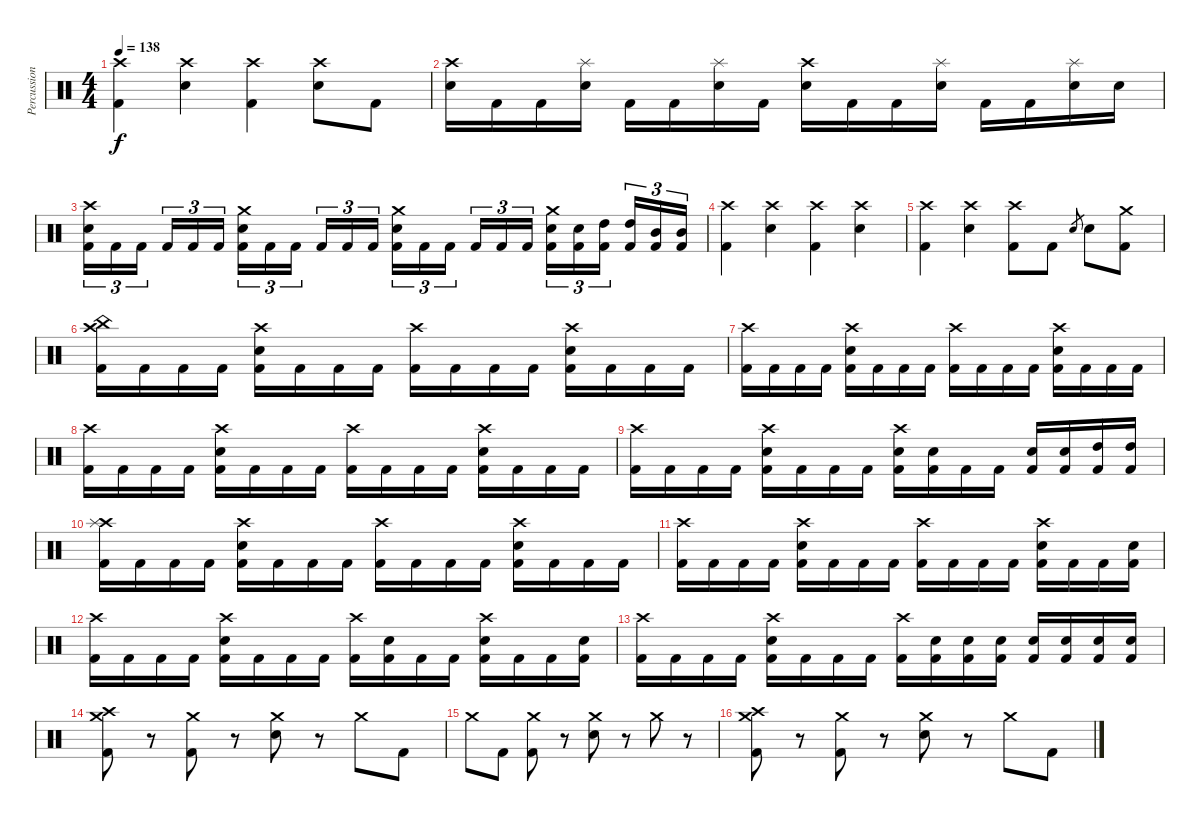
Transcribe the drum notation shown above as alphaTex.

\track ("Percussion" "Percussion") {instrument percussion}
\staff {score}
\articulation defaults
\ts (4 4)
\tempo 138
\clef neutral
\ks c
("Crash high (hit)" "Kick (hit) 2").4{dy f} ("Crash high (hit)" "Electric Snare (hit)").4 ("Crash high (hit)" "Kick (hit) 2").4 ("Crash high (hit)" "Electric Snare (hit)").8 "Kick (hit) 2".8 |
("Crash high (hit)" "Electric Snare (hit)").16 "Kick (hit) 2".16 "Kick (hit) 2".16 ("Splash (hit)" "Electric Snare (hit)").16 "Kick (hit) 2".16 "Kick (hit) 2".16 ("Splash (hit)" "Electric Snare (hit)").16 "Kick (hit) 2".16 ("Crash high (hit)" "Electric Snare (hit)").16 "Kick (hit) 2".16 "Kick (hit) 2".16 ("Splash (hit)" "Electric Snare (hit)").16 "Kick (hit) 2".16 "Kick (hit) 2".16 ("Splash (hit)" "Electric Snare (hit)").16 "Electric Snare (hit)".16 |
("Crash high (hit)" "Electric Snare (hit)" "Kick (hit) 2").16{tu (3 2)} "Kick (hit) 2".16{tu (3 2)} "Kick (hit) 2".16{tu (3 2)} "Kick (hit) 2".16{tu (3 2)} "Kick (hit) 2".16{tu (3 2)} "Kick (hit) 2".16{tu (3 2)} ("Crash medium (hit)" "Electric Snare (hit)" "Kick (hit) 2").16{tu (3 2)} "Kick (hit) 2".16{tu (3 2)} "Kick (hit) 2".16{tu (3 2)} "Kick (hit) 2".16{tu (3 2)} "Kick (hit) 2".16{tu (3 2)} "Kick (hit) 2".16{tu (3 2)} ("Crash medium (hit)" "Electric Snare (hit)" "Kick (hit) 2").16{tu (3 2)} "Kick (hit) 2".16{tu (3 2)} "Kick (hit) 2".16{tu (3 2)} "Kick (hit) 2".16{tu (3 2)} "Kick (hit) 2".16{tu (3 2)} "Kick (hit) 2".16{tu (3 2)} ("Crash medium (hit)" "Electric Snare (hit)" "Kick (hit) 2").16{tu (3 2)} ("Electric Snare (hit)" "Kick (hit) 2").16{tu (3 2)} ("High Tom (hit)" "Kick (hit) 2").16{tu (3 2)} ("High Tom (hit)" "Kick (hit) 2").16{tu (3 2)} ("Mid Tom (hit)" "Kick (hit) 2").16{tu (3 2)} ("Mid Tom (hit)" "Kick (hit) 2").16{tu (3 2)} |
("Crash high (hit)" "Kick (hit) 2").4 ("Crash high (hit)" "Electric Snare (hit)").4 ("Crash high (hit)" "Kick (hit) 2").4 ("Crash high (hit)" "Electric Snare (hit)").4 |
("Crash high (hit)" "Kick (hit) 2").4 ("Crash high (hit)" "Electric Snare (hit)").4 ("Crash high (hit)" "Kick (hit) 2").8 "Kick (hit) 2".8 "Electric Snare (hit)".8{gr} "Electric Snare (hit)".8 ("Crash medium (hit)" "Kick (hit) 2").8 |
("Crash high (hit)" "China (hit)" "Kick (hit) 2").16 "Kick (hit) 2".16 "Kick (hit) 2".16 "Kick (hit) 2".16 ("Crash high (hit)" "Electric Snare (hit)" "Kick (hit) 2").16 "Kick (hit) 2".16 "Kick (hit) 2".16 "Kick (hit) 2".16 ("Crash high (hit)" "Kick (hit) 2").16 "Kick (hit) 2".16 "Kick (hit) 2".16 "Kick (hit) 2".16 ("Crash high (hit)" "Electric Snare (hit)" "Kick (hit) 2").16 "Kick (hit) 2".16 "Kick (hit) 2".16 "Kick (hit) 2".16 |
("Crash high (hit)" "Kick (hit) 2").16 "Kick (hit) 2".16 "Kick (hit) 2".16 "Kick (hit) 2".16 ("Crash high (hit)" "Electric Snare (hit)" "Kick (hit) 2").16 "Kick (hit) 2".16 "Kick (hit) 2".16 "Kick (hit) 2".16 ("Crash high (hit)" "Kick (hit) 2").16 "Kick (hit) 2".16 "Kick (hit) 2".16 "Kick (hit) 2".16 ("Crash high (hit)" "Electric Snare (hit)" "Kick (hit) 2").16 "Kick (hit) 2".16 "Kick (hit) 2".16 "Kick (hit) 2".16 |
("Crash high (hit)" "Kick (hit) 2").16 "Kick (hit) 2".16 "Kick (hit) 2".16 "Kick (hit) 2".16 ("Crash high (hit)" "Electric Snare (hit)" "Kick (hit) 2").16 "Kick (hit) 2".16 "Kick (hit) 2".16 "Kick (hit) 2".16 ("Crash high (hit)" "Kick (hit) 2").16 "Kick (hit) 2".16 "Kick (hit) 2".16 "Kick (hit) 2".16 ("Crash high (hit)" "Electric Snare (hit)" "Kick (hit) 2").16 "Kick (hit) 2".16 "Kick (hit) 2".16 "Kick (hit) 2".16 |
("Crash high (hit)" "Kick (hit) 2").16 "Kick (hit) 2".16 "Kick (hit) 2".16 "Kick (hit) 2".16 ("Crash high (hit)" "Electric Snare (hit)" "Kick (hit) 2").16 "Kick (hit) 2".16 "Kick (hit) 2".16 "Kick (hit) 2".16 ("Crash high (hit)" "Electric Snare (hit)" "Kick (hit) 2").16 ("Electric Snare (hit)" "Kick (hit) 2").16 "Kick (hit) 2".16 "Kick (hit) 2".16 ("Electric Snare (hit)" "Kick (hit) 2").16 ("Electric Snare (hit)" "Kick (hit) 2").16 ("High Tom (hit)" "Kick (hit) 2").16 ("High Tom (hit)" "Kick (hit) 2").16 |
("Crash high (hit)" "Splash (hit)" "Kick (hit) 2").16 "Kick (hit) 2".16 "Kick (hit) 2".16 "Kick (hit) 2".16 ("Crash high (hit)" "Electric Snare (hit)" "Kick (hit) 2").16 "Kick (hit) 2".16 "Kick (hit) 2".16 "Kick (hit) 2".16 ("Crash high (hit)" "Kick (hit) 2").16 "Kick (hit) 2".16 "Kick (hit) 2".16 "Kick (hit) 2".16 ("Crash high (hit)" "Electric Snare (hit)" "Kick (hit) 2").16 "Kick (hit) 2".16 "Kick (hit) 2".16 "Kick (hit) 2".16 |
("Crash high (hit)" "Kick (hit) 2").16 "Kick (hit) 2".16 "Kick (hit) 2".16 "Kick (hit) 2".16 ("Crash high (hit)" "Electric Snare (hit)" "Kick (hit) 2").16 "Kick (hit) 2".16 "Kick (hit) 2".16 "Kick (hit) 2".16 ("Crash high (hit)" "Kick (hit) 2").16 "Kick (hit) 2".16 "Kick (hit) 2".16 "Kick (hit) 2".16 ("Crash high (hit)" "Electric Snare (hit)" "Kick (hit) 2").16 "Kick (hit) 2".16 "Kick (hit) 2".16 ("Electric Snare (hit)" "Kick (hit) 2").16 |
("Crash high (hit)" "Kick (hit) 2").16 "Kick (hit) 2".16 "Kick (hit) 2".16 "Kick (hit) 2".16 ("Crash high (hit)" "Electric Snare (hit)" "Kick (hit) 2").16 "Kick (hit) 2".16 "Kick (hit) 2".16 "Kick (hit) 2".16 ("Crash high (hit)" "Kick (hit) 2").16 ("Electric Snare (hit)" "Kick (hit) 2").16 "Kick (hit) 2".16 "Kick (hit) 2".16 ("Crash high (hit)" "Electric Snare (hit)" "Kick (hit) 2").16 "Kick (hit) 2".16 "Kick (hit) 2".16 ("Electric Snare (hit)" "Kick (hit) 2").16 |
("Crash high (hit)" "Kick (hit) 2").16 "Kick (hit) 2".16 "Kick (hit) 2".16 "Kick (hit) 2".16 ("Crash high (hit)" "Electric Snare (hit)" "Kick (hit) 2").16 "Kick (hit) 2".16 "Kick (hit) 2".16 "Kick (hit) 2".16 ("Crash high (hit)" "Kick (hit) 2").16 ("Electric Snare (hit)" "Kick (hit) 2").16 ("Electric Snare (hit)" "Kick (hit) 2").16 ("Electric Snare (hit)" "Kick (hit) 2").16 ("Electric Snare (hit)" "Kick (hit) 2").16 ("Electric Snare (hit)" "Kick (hit) 2").16 ("Electric Snare (hit)" "Kick (hit) 2").16 ("Electric Snare (hit)" "Kick (hit) 2").16 |
("Crash medium (hit)" "Crash high (hit)" "Kick (hit) 2").8 r.8 ("Crash medium (hit)" "Kick (hit) 2").8 r.8 ("Crash medium (hit)" "Electric Snare (hit)").8 r.8 "Crash medium (hit)".8 "Kick (hit) 2".8 |
"Crash medium (hit)".8 "Kick (hit) 2".8 ("Crash medium (hit)" "Kick (hit) 2").8 r.8 ("Crash medium (hit)" "Electric Snare (hit)").8 r.8 "Crash medium (hit)".8 r.8 |
("Crash medium (hit)" "Crash high (hit)" "Kick (hit) 2").8 r.8 ("Crash medium (hit)" "Kick (hit) 2").8 r.8 ("Crash medium (hit)" "Electric Snare (hit)").8 r.8 "Crash medium (hit)".8 "Kick (hit) 2".8
